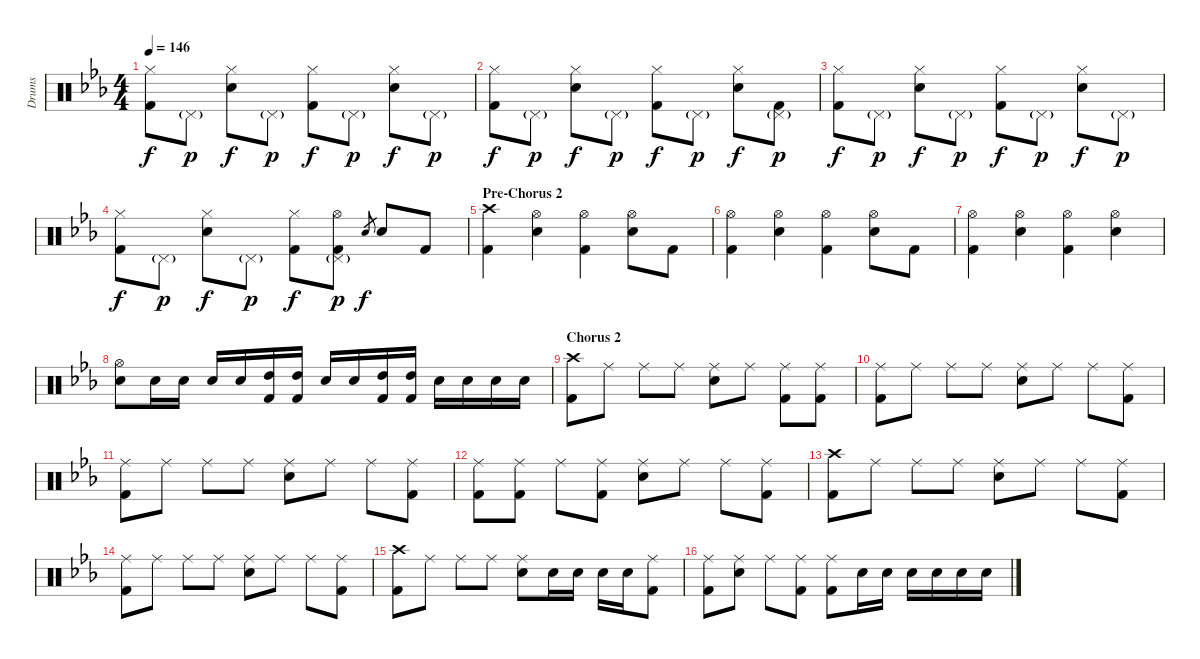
\track ("Drums" "Drums") {instrument percussion}
\staff {score}
\articulation defaults
\ts (4 4)
\tempo 146
\clef neutral
\ks eb
("Hi-Hat (closed)" "Kick (hit) 2").8{dy f} "Pedal Hi-Hat (hit)"{g}.8{dy p} ("Hi-Hat (closed)" "Electric Snare (hit)").8{dy f} "Pedal Hi-Hat (hit)"{g}.8{dy p} ("Hi-Hat (closed)" "Kick (hit) 2").8{dy f} "Pedal Hi-Hat (hit)"{g}.8{dy p} ("Hi-Hat (closed)" "Electric Snare (hit)").8{dy f} "Pedal Hi-Hat (hit)"{g}.8{dy p} |
("Hi-Hat (closed)" "Kick (hit) 2").8{dy f} "Pedal Hi-Hat (hit)"{g}.8{dy p} ("Hi-Hat (closed)" "Electric Snare (hit)").8{dy f} "Pedal Hi-Hat (hit)"{g}.8{dy p} ("Hi-Hat (closed)" "Kick (hit) 2").8{dy f} "Pedal Hi-Hat (hit)"{g}.8{dy p} ("Hi-Hat (closed)" "Electric Snare (hit)").8{dy f} ("Pedal Hi-Hat (hit)"{g} "Kick (hit) 2").8{dy p} |
("Hi-Hat (closed)" "Kick (hit) 2").8{dy f} "Pedal Hi-Hat (hit)"{g}.8{dy p} ("Hi-Hat (closed)" "Electric Snare (hit)").8{dy f} "Pedal Hi-Hat (hit)"{g}.8{dy p} ("Hi-Hat (closed)" "Kick (hit) 2").8{dy f} "Pedal Hi-Hat (hit)"{g}.8{dy p} ("Hi-Hat (closed)" "Electric Snare (hit)").8{dy f} "Pedal Hi-Hat (hit)"{g}.8{dy p} |
("Hi-Hat (closed)" "Kick (hit) 2").8{dy f} "Pedal Hi-Hat (hit)"{g}.8{dy p} ("Hi-Hat (closed)" "Electric Snare (hit)").8{dy f} "Pedal Hi-Hat (hit)"{g}.8{dy p} ("Hi-Hat (closed)" "Kick (hit) 2").8{dy f} ("Hi-Hat (open)" "Pedal Hi-Hat (hit)"{g} "Kick (hit) 2").8{dy p} "Electric Snare (hit)".8{gr dy f} "Electric Snare (hit)".8 "Kick (hit) 2".8 |
\section ("" "Pre-Chorus 2")
("Crash high (hit)" "Kick (hit) 2").4 ("Hi-Hat (open)" "Electric Snare (hit)").4 ("Hi-Hat (open)" "Kick (hit) 2").4 ("Hi-Hat (open)" "Electric Snare (hit)").8 "Kick (hit) 2".8 |
("Hi-Hat (open)" "Kick (hit) 2").4 ("Hi-Hat (open)" "Electric Snare (hit)").4 ("Hi-Hat (open)" "Kick (hit) 2").4 ("Hi-Hat (open)" "Electric Snare (hit)").8 "Kick (hit) 2".8 |
("Hi-Hat (open)" "Kick (hit) 2").4 ("Hi-Hat (open)" "Electric Snare (hit)").4 ("Hi-Hat (open)" "Kick (hit) 2").4 ("Hi-Hat (open)" "Electric Snare (hit)").4 |
("Hi-Hat (open)" "Electric Snare (hit)").8 "Electric Snare (hit)".16 "Electric Snare (hit)".16 "Electric Snare (hit)".16 "Electric Snare (hit)".16 ("High Tom (hit)" "Kick (hit) 2").16 ("High Tom (hit)" "Kick (hit) 2").16 "Electric Snare (hit)".16 "Electric Snare (hit)".16 ("High Tom (hit)" "Kick (hit) 2").16 ("High Tom (hit)" "Kick (hit) 2").16 "Electric Snare (hit)".16 "Electric Snare (hit)".16 "Electric Snare (hit)".16 "Electric Snare (hit)".16 |
\section ("" "Chorus 2")
("Crash high (hit)" "Kick (hit) 2").8 "Ride (middle)".8 "Ride (middle)".8 "Ride (middle)".8 ("Ride (middle)" "Electric Snare (hit)").8 "Ride (middle)".8 ("Ride (middle)" "Kick (hit) 2").8 ("Ride (middle)" "Kick (hit) 2").8 |
("Ride (middle)" "Kick (hit) 2").8 "Ride (middle)".8 "Ride (middle)".8 "Ride (middle)".8 ("Ride (middle)" "Electric Snare (hit)").8 "Ride (middle)".8 "Ride (middle)".8 ("Ride (middle)" "Kick (hit) 2").8 |
("Ride (middle)" "Kick (hit) 2").8 "Ride (middle)".8 "Ride (middle)".8 "Ride (middle)".8 ("Ride (middle)" "Electric Snare (hit)").8 "Ride (middle)".8 "Ride (middle)".8 ("Ride (middle)" "Kick (hit) 2").8 |
("Ride (middle)" "Kick (hit) 2").8 ("Ride (middle)" "Kick (hit) 2").8 "Ride (middle)".8 ("Ride (middle)" "Kick (hit) 2").8 ("Ride (middle)" "Electric Snare (hit)").8 "Ride (middle)".8 "Ride (middle)".8 ("Ride (middle)" "Kick (hit) 2").8 |
("Crash high (hit)" "Kick (hit) 2").8 "Ride (middle)".8 "Ride (middle)".8 "Ride (middle)".8 ("Ride (middle)" "Electric Snare (hit)").8 "Ride (middle)".8 "Ride (middle)".8 ("Ride (middle)" "Kick (hit) 2").8 |
("Ride (middle)" "Kick (hit) 2").8 "Ride (middle)".8 "Ride (middle)".8 "Ride (middle)".8 ("Ride (middle)" "Electric Snare (hit)").8 "Ride (middle)".8 "Ride (middle)".8 ("Ride (middle)" "Kick (hit) 2").8 |
("Crash high (hit)" "Kick (hit) 2").8 "Ride (middle)".8 "Ride (middle)".8 "Ride (middle)".8 ("Ride (middle)" "Electric Snare (hit)").8 "Electric Snare (hit)".16 "Electric Snare (hit)".16 "Electric Snare (hit)".16 "Electric Snare (hit)".16 ("Ride (middle)" "Kick (hit) 2").8 |
("Ride (middle)" "Kick (hit) 2").8 ("Ride (middle)" "Electric Snare (hit)").8 "Ride (middle)".8 ("Ride (middle)" "Kick (hit) 2").8 ("Ride (middle)" "Kick (hit) 2").8 "Electric Snare (hit)".16 "Electric Snare (hit)".16 "Electric Snare (hit)".16 "Electric Snare (hit)".16 "Electric Snare (hit)".16 "Electric Snare (hit)".16
